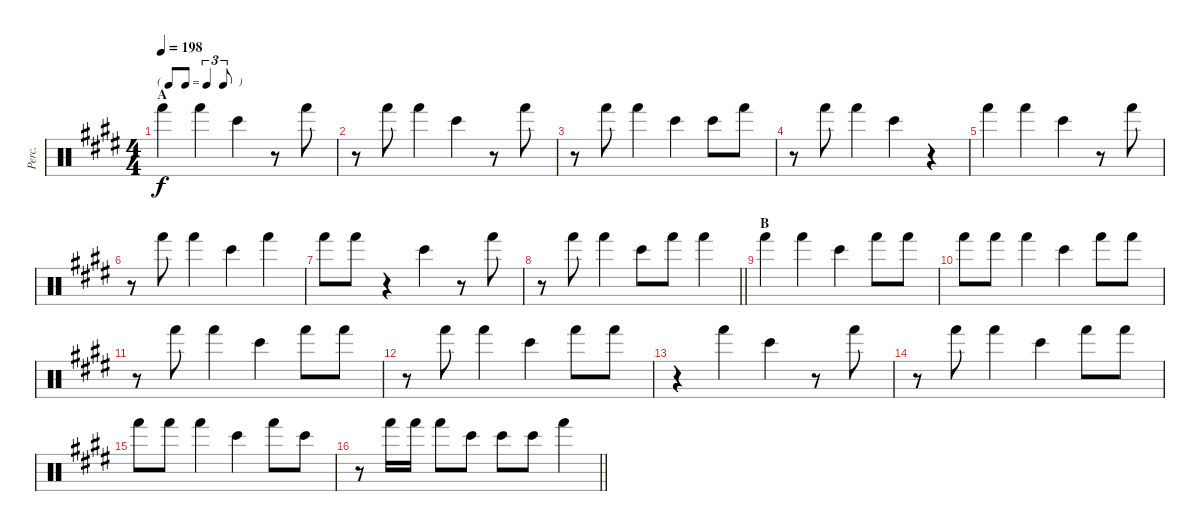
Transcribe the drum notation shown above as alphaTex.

\track ("Perc." "Perc.") {instrument percussion}
\staff {score}
\articulation defaults
\ts (4 4)
\tf triplet8th
\section ("" "A")
\tempo 198
\clef neutral
\ks e "Hand (hit)".4{dy f} "Hand (hit)".4 "Bongo High (hit)".4
r.8 "Hand (hit)".8 |
r.8 "Hand (hit)".8 "Hand (hit)".4 "Bongo High (hit)".4 r.8 "Hand (hit)".8 |
r.8 "Hand (hit)".8 "Hand (hit)".4 "Bongo High (hit)".4 "Bongo High (hit)".8 "Hand (hit)".8 |
r.8 "Hand (hit)".8 "Hand (hit)".4 "Bongo High (hit)".4 r.4 |
"Hand (hit)".4 "Hand (hit)".4 "Bongo High (hit)".4 r.8 "Hand (hit)".8 |
r.8 "Hand (hit)".8 "Hand (hit)".4 "Bongo High (hit)".4 "Hand (hit)".4 |
"Hand (hit)".8 "Hand (hit)".8 r.4 "Bongo High (hit)".4 r.8 "Hand (hit)".8 |
\barLineRight lightlight
r.8 "Hand (hit)".8 "Hand (hit)".4 "Bongo High (hit)".8 "Hand (hit)".8 "Hand (hit)".4 |
\section ("" "B")
"Hand (hit)".4 "Hand (hit)".4 "Bongo High (hit)".4 "Hand (hit)".8 "Hand (hit)".8 |
"Hand (hit)".8 "Hand (hit)".8 "Hand (hit)".4 "Bongo High (hit)".4 "Hand (hit)".8 "Hand (hit)".8 |
r.8 "Hand (hit)".8 "Hand (hit)".4 "Bongo High (hit)".4 "Hand (hit)".8 "Hand (hit)".8 |
r.8 "Hand (hit)".8 "Hand (hit)".4 "Bongo High (hit)".4 "Hand (hit)".8 "Hand (hit)".8 |
r.4 "Hand (hit)".4 "Bongo High (hit)".4 r.8 "Hand (hit)".8 |
r.8 "Hand (hit)".8 "Hand (hit)".4 "Bongo High (hit)".4 "Hand (hit)".8 "Hand (hit)".8 |
"Hand (hit)".8 "Hand (hit)".8 "Hand (hit)".4 "Bongo High (hit)".4 "Hand (hit)".8 "Bongo High (hit)".8 |
\barLineRight lightlight
r.8 "Hand (hit)".16 "Hand (hit)".16 "Hand (hit)".8 "Bongo High (hit)".8 "Bongo High (hit)".8 "Bongo High (hit)".8 "Hand (hit)".4
